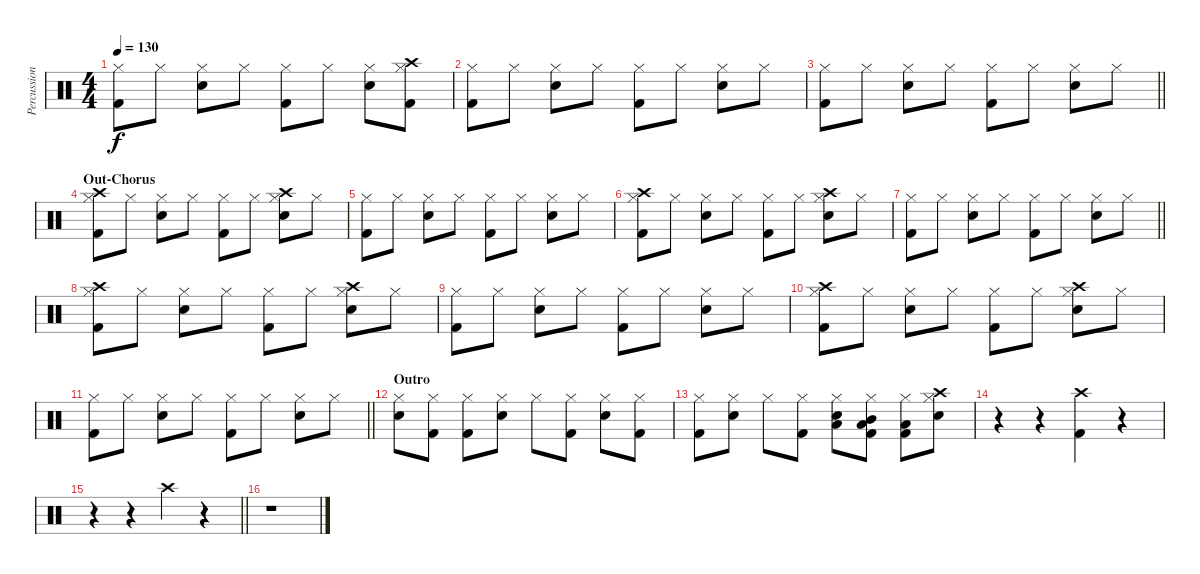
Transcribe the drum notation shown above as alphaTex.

\track ("Percussion" "Percussion") {instrument percussion}
\staff {score}
\articulation defaults
\ts (4 4)
\tempo 130
\clef neutral
\ks c
("Kick (hit) 2" "Hi-Hat (closed)").8{dy f} "Hi-Hat (closed)".8 ("Hi-Hat (closed)" "Snare (hit) 2").8 "Hi-Hat (closed)".8 ("Hi-Hat (closed)" "Kick (hit) 2").8 "Hi-Hat (closed)".8 ("Hi-Hat (closed)" "Snare (hit) 2").8 ("Hi-Hat (closed)" "Kick (hit) 2" "Crash high (hit)").8 |
("Kick (hit) 2" "Hi-Hat (closed)").8 "Hi-Hat (closed)".8 ("Hi-Hat (closed)" "Snare (hit) 2").8 "Hi-Hat (closed)".8 ("Hi-Hat (closed)" "Kick (hit) 2").8 "Hi-Hat (closed)".8 ("Hi-Hat (closed)" "Snare (hit) 2").8 "Hi-Hat (closed)".8 |
\barLineRight lightlight
("Kick (hit) 2" "Hi-Hat (closed)").8 "Hi-Hat (closed)".8 ("Hi-Hat (closed)" "Snare (hit) 2").8 "Hi-Hat (closed)".8 ("Hi-Hat (closed)" "Kick (hit) 2").8 "Hi-Hat (closed)".8 ("Hi-Hat (closed)" "Snare (hit) 2").8 "Hi-Hat (closed)".8 |
\section ("" "Out-Chorus")
("Kick (hit) 2" "Hi-Hat (closed)" "Crash high (hit)").8 "Hi-Hat (closed)".8 ("Hi-Hat (closed)" "Snare (hit) 2").8 "Hi-Hat (closed)".8 ("Hi-Hat (closed)" "Kick (hit) 2").8 "Hi-Hat (closed)".8 ("Hi-Hat (closed)" "Snare (hit) 2" "Crash high (hit)").8 "Hi-Hat (closed)".8 |
("Kick (hit) 2" "Hi-Hat (closed)").8 "Hi-Hat (closed)".8 ("Hi-Hat (closed)" "Snare (hit) 2").8 "Hi-Hat (closed)".8 ("Hi-Hat (closed)" "Kick (hit) 2").8 "Hi-Hat (closed)".8 ("Hi-Hat (closed)" "Snare (hit) 2").8 "Hi-Hat (closed)".8 |
("Kick (hit) 2" "Hi-Hat (closed)" "Crash high (hit)").8 "Hi-Hat (closed)".8 ("Hi-Hat (closed)" "Snare (hit) 2").8 "Hi-Hat (closed)".8 ("Hi-Hat (closed)" "Kick (hit) 2").8 "Hi-Hat (closed)".8 ("Hi-Hat (closed)" "Snare (hit) 2" "Crash high (hit)").8 "Hi-Hat (closed)".8 |
\barLineRight lightlight
("Kick (hit) 2" "Hi-Hat (closed)").8 "Hi-Hat (closed)".8 ("Hi-Hat (closed)" "Snare (hit) 2").8 "Hi-Hat (closed)".8 ("Hi-Hat (closed)" "Kick (hit) 2").8 "Hi-Hat (closed)".8 ("Hi-Hat (closed)" "Snare (hit) 2").8 "Hi-Hat (closed)".8 |
("Kick (hit) 2" "Hi-Hat (closed)" "Crash high (hit)").8 "Hi-Hat (closed)".8 ("Hi-Hat (closed)" "Snare (hit) 2").8 "Hi-Hat (closed)".8 ("Hi-Hat (closed)" "Kick (hit) 2").8 "Hi-Hat (closed)".8 ("Hi-Hat (closed)" "Snare (hit) 2" "Crash high (hit)").8 "Hi-Hat (closed)".8 |
("Kick (hit) 2" "Hi-Hat (closed)").8 "Hi-Hat (closed)".8 ("Hi-Hat (closed)" "Snare (hit) 2").8 "Hi-Hat (closed)".8 ("Hi-Hat (closed)" "Kick (hit) 2").8 "Hi-Hat (closed)".8 ("Hi-Hat (closed)" "Snare (hit) 2").8 "Hi-Hat (closed)".8 |
("Kick (hit) 2" "Hi-Hat (closed)" "Crash high (hit)").8 "Hi-Hat (closed)".8 ("Hi-Hat (closed)" "Snare (hit) 2").8 "Hi-Hat (closed)".8 ("Hi-Hat (closed)" "Kick (hit) 2").8 "Hi-Hat (closed)".8 ("Hi-Hat (closed)" "Snare (hit) 2" "Crash high (hit)").8 "Hi-Hat (closed)".8 |
\barLineRight lightlight
("Kick (hit) 2" "Hi-Hat (closed)").8 "Hi-Hat (closed)".8 ("Hi-Hat (closed)" "Snare (hit) 2").8 "Hi-Hat (closed)".8 ("Hi-Hat (closed)" "Kick (hit) 2").8 "Hi-Hat (closed)".8 ("Hi-Hat (closed)" "Snare (hit) 2").8 "Hi-Hat (closed)".8 |
\section ("" "Outro")
("Snare (hit) 2" "Hi-Hat (closed)").8 ("Kick (hit) 2" "Hi-Hat (closed)").8 ("Kick (hit) 2" "Hi-Hat (closed)").8 ("Snare (hit) 2" "Hi-Hat (closed)").8 "Hi-Hat (closed)".8 ("Kick (hit) 2" "Hi-Hat (closed)").8 ("Snare (hit) 2" "Hi-Hat (closed)").8 ("Kick (hit) 2" "Hi-Hat (closed)").8 |
("Kick (hit) 2" "Hi-Hat (closed)").8 ("Snare (hit) 2" "Hi-Hat (closed)").8 "Hi-Hat (closed)".8 ("Kick (hit) 2" "Hi-Hat (closed)").8 ("Snare (hit) 2" "Hi-Hat (closed)" "Low Tom (hit)").8 ("Kick (hit) 2" "Hi-Hat (closed)" "Low Tom (hit)" "Mid Tom (hit)").8 ("Kick (hit) 2" "Hi-Hat (closed)" "Low Tom (hit)").8 ("Snare (hit) 2" "Hi-Hat (closed)" "Crash high (hit)").8 |
r.4 r.4 ("Kick (hit) 2" "Crash high (hit)").4 r.4 |
\barLineRight lightlight
r.4 r.4 "Crash high (hit)".4 r.4 |
r.1
